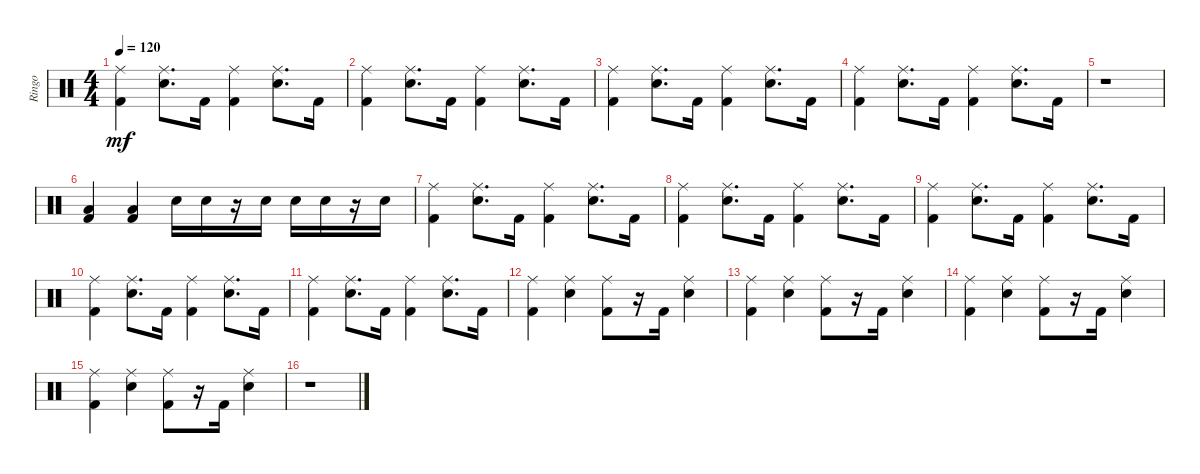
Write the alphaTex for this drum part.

\track ("Ringo" "Ringo") {instrument percussion}
\staff {score}
\articulation defaults
\ts (4 4)
\tempo 120
\clef neutral
\ks c
("Kick (hit) 2" "Ride (middle)").4{dy mf} ("Electric Snare (hit)" "Ride (middle)").8{d} "Kick (hit) 2".16 ("Kick (hit) 2" "Ride (middle)").4 ("Electric Snare (hit)" "Ride (middle)").8{d} "Kick (hit) 2".16 |
("Kick (hit) 2" "Ride (middle)").4 ("Electric Snare (hit)" "Ride (middle)").8{d} "Kick (hit) 2".16 ("Kick (hit) 2" "Ride (middle)").4 ("Electric Snare (hit)" "Ride (middle)").8{d} "Kick (hit) 2".16 |
("Kick (hit) 2" "Ride (middle)").4 ("Electric Snare (hit)" "Ride (middle)").8{d} "Kick (hit) 2".16 ("Kick (hit) 2" "Ride (middle)").4 ("Electric Snare (hit)" "Ride (middle)").8{d} "Kick (hit) 2".16 |
("Kick (hit) 2" "Ride (middle)").4 ("Electric Snare (hit)" "Ride (middle)").8{d} "Kick (hit) 2".16 ("Kick (hit) 2" "Ride (middle)").4 ("Electric Snare (hit)" "Ride (middle)").8{d} "Kick (hit) 2".16 |
r.1 |
("Kick (hit) 2" "Low Tom (hit)").4 ("Kick (hit) 2" "Low Tom (hit)").4 "Electric Snare (hit)".16 "Electric Snare (hit)".16 r.16 "Electric Snare (hit)".16 "Electric Snare (hit)".16 "Electric Snare (hit)".16 r.16 "Electric Snare (hit)".16 |
("Kick (hit) 2" "Ride (middle)").4 ("Electric Snare (hit)" "Ride (middle)").8{d} "Kick (hit) 2".16 ("Kick (hit) 2" "Ride (middle)").4 ("Electric Snare (hit)" "Ride (middle)").8{d} "Kick (hit) 2".16 |
("Kick (hit) 2" "Ride (middle)").4 ("Electric Snare (hit)" "Ride (middle)").8{d} "Kick (hit) 2".16 ("Kick (hit) 2" "Ride (middle)").4 ("Electric Snare (hit)" "Ride (middle)").8{d} "Kick (hit) 2".16 |
("Kick (hit) 2" "Ride (middle)").4 ("Electric Snare (hit)" "Ride (middle)").8{d} "Kick (hit) 2".16 ("Kick (hit) 2" "Ride (middle)").4 ("Electric Snare (hit)" "Ride (middle)").8{d} "Kick (hit) 2".16 |
("Kick (hit) 2" "Ride (middle)").4 ("Electric Snare (hit)" "Ride (middle)").8{d} "Kick (hit) 2".16 ("Kick (hit) 2" "Ride (middle)").4 ("Electric Snare (hit)" "Ride (middle)").8{d} "Kick (hit) 2".16 |
("Kick (hit) 2" "Ride (middle)").4 ("Electric Snare (hit)" "Ride (middle)").8{d} "Kick (hit) 2".16 ("Kick (hit) 2" "Ride (middle)").4 ("Electric Snare (hit)" "Ride (middle)").8{d} "Kick (hit) 2".16 |
("Kick (hit) 2" "Ride (middle)").4 ("Electric Snare (hit)" "Ride (middle)").4 ("Ride (middle)" "Kick (hit) 2").8 r.16 "Kick (hit) 2".16 ("Electric Snare (hit)" "Ride (middle)").4 |
("Kick (hit) 2" "Ride (middle)").4 ("Electric Snare (hit)" "Ride (middle)").4 ("Ride (middle)" "Kick (hit) 2").8 r.16 "Kick (hit) 2".16 ("Electric Snare (hit)" "Ride (middle)").4 |
("Kick (hit) 2" "Ride (middle)").4 ("Electric Snare (hit)" "Ride (middle)").4 ("Ride (middle)" "Kick (hit) 2").8 r.16 "Kick (hit) 2".16 ("Electric Snare (hit)" "Ride (middle)").4 |
("Kick (hit) 2" "Ride (middle)").4 ("Electric Snare (hit)" "Ride (middle)").4 ("Ride (middle)" "Kick (hit) 2").8 r.16 "Kick (hit) 2".16 ("Electric Snare (hit)" "Ride (middle)").4 |
r.1
